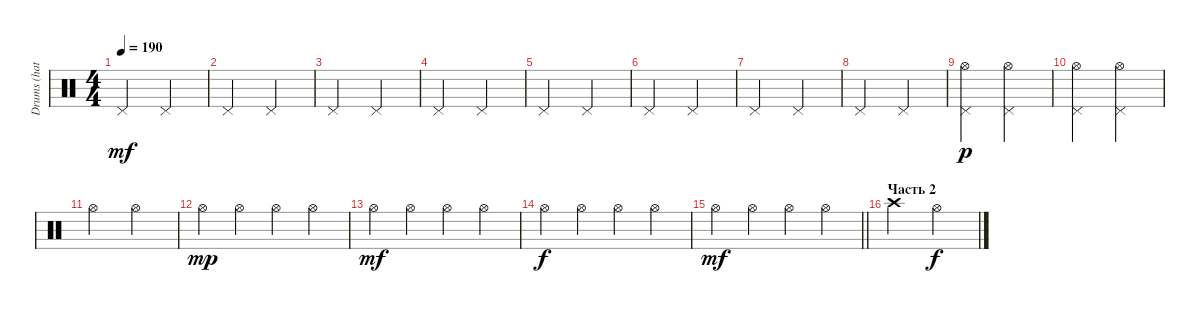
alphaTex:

\track ("Drums (hats)" "Drums (hat") {instrument percussion}
\staff {score}
\articulation defaults
\ts (4 4)
\tempo 190
\clef neutral
\ks c "Pedal Hi-Hat (hit)".2{dy mf} "Pedal Hi-Hat (hit)".2
|
"Pedal Hi-Hat (hit)".2 "Pedal Hi-Hat (hit)".2 |
"Pedal Hi-Hat (hit)".2 "Pedal Hi-Hat (hit)".2 |
"Pedal Hi-Hat (hit)".2 "Pedal Hi-Hat (hit)".2 |
"Pedal Hi-Hat (hit)".2 "Pedal Hi-Hat (hit)".2 |
"Pedal Hi-Hat (hit)".2 "Pedal Hi-Hat (hit)".2 |
"Pedal Hi-Hat (hit)".2 "Pedal Hi-Hat (hit)".2 |
"Pedal Hi-Hat (hit)".2 "Pedal Hi-Hat (hit)".2 |
("Pedal Hi-Hat (hit)" "Hi-Hat (open)").2{dy p} ("Pedal Hi-Hat (hit)" "Hi-Hat (open)").2 |
("Pedal Hi-Hat (hit)" "Hi-Hat (open)").2 ("Pedal Hi-Hat (hit)" "Hi-Hat (open)").2 |
"Hi-Hat (open)".2 "Hi-Hat (open)".2 |
"Hi-Hat (open)".4{dy mp} "Hi-Hat (open)".4 "Hi-Hat (open)".4 "Hi-Hat (open)".4 |
"Hi-Hat (open)".4{dy mf} "Hi-Hat (open)".4 "Hi-Hat (open)".4 "Hi-Hat (open)".4 |
"Hi-Hat (open)".4{dy f} "Hi-Hat (open)".4 "Hi-Hat (open)".4 "Hi-Hat (open)".4 |
\barLineRight lightlight "Hi-Hat (open)".4{dy mf} "Hi-Hat (open)".4 "Hi-Hat (open)".4 "Hi-Hat (open)".4
|
\section ("" "Часть 2")
"Crash high (hit)".2 "Hi-Hat (open)".2{dy f}
